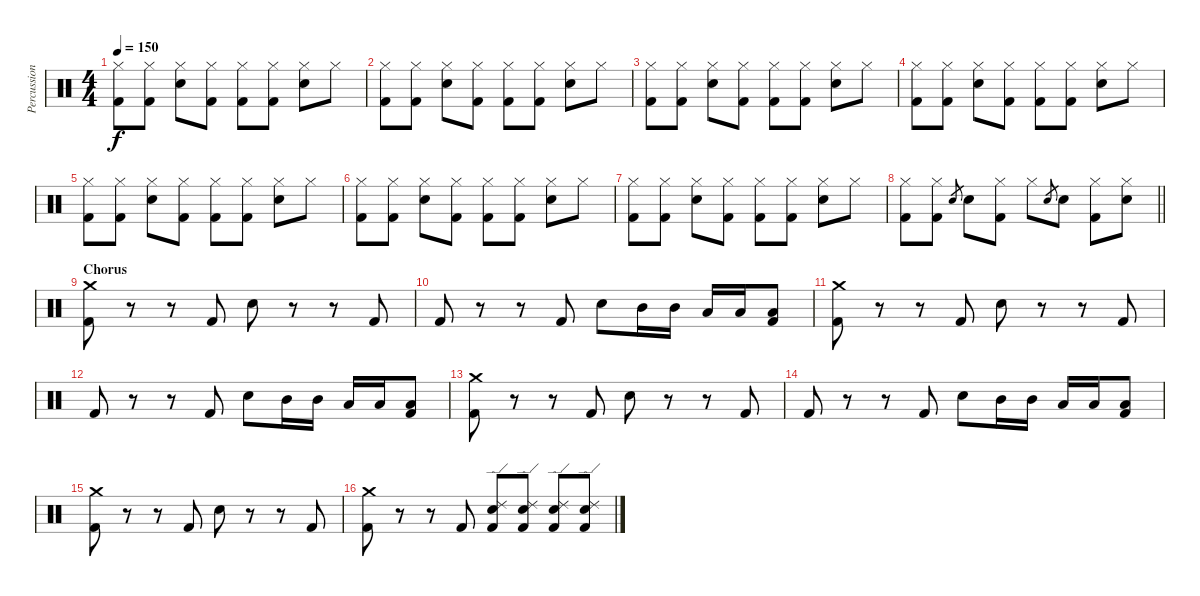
\track ("Percussion" "Percussion") {instrument percussion}
\staff {score}
\articulation defaults
\ts (4 4)
\tempo 150
\clef neutral
\ks c
("Hi-Hat (closed)" "Kick (hit) 2").8{dy f} ("Hi-Hat (closed)" "Kick (hit) 2").8 ("Hi-Hat (closed)" "Snare (hit) 2").8 ("Hi-Hat (closed)" "Kick (hit) 2").8 ("Hi-Hat (closed)" "Kick (hit) 2").8 ("Hi-Hat (closed)" "Kick (hit) 2").8 ("Hi-Hat (closed)" "Snare (hit) 2").8 "Hi-Hat (closed)".8 |
("Hi-Hat (closed)" "Kick (hit) 2").8 ("Hi-Hat (closed)" "Kick (hit) 2").8 ("Hi-Hat (closed)" "Snare (hit) 2").8 ("Hi-Hat (closed)" "Kick (hit) 2").8 ("Hi-Hat (closed)" "Kick (hit) 2").8 ("Hi-Hat (closed)" "Kick (hit) 2").8 ("Hi-Hat (closed)" "Snare (hit) 2").8 "Hi-Hat (closed)".8 |
("Hi-Hat (closed)" "Kick (hit) 2").8 ("Hi-Hat (closed)" "Kick (hit) 2").8 ("Hi-Hat (closed)" "Snare (hit) 2").8 ("Hi-Hat (closed)" "Kick (hit) 2").8 ("Hi-Hat (closed)" "Kick (hit) 2").8 ("Hi-Hat (closed)" "Kick (hit) 2").8 ("Hi-Hat (closed)" "Snare (hit) 2").8 "Hi-Hat (closed)".8 |
("Hi-Hat (closed)" "Kick (hit) 2").8 ("Hi-Hat (closed)" "Kick (hit) 2").8 ("Hi-Hat (closed)" "Snare (hit) 2").8 ("Hi-Hat (closed)" "Kick (hit) 2").8 ("Hi-Hat (closed)" "Kick (hit) 2").8 ("Hi-Hat (closed)" "Kick (hit) 2").8 ("Hi-Hat (closed)" "Snare (hit) 2").8 "Hi-Hat (closed)".8 |
("Hi-Hat (closed)" "Kick (hit) 2").8 ("Hi-Hat (closed)" "Kick (hit) 2").8 ("Hi-Hat (closed)" "Snare (hit) 2").8 ("Hi-Hat (closed)" "Kick (hit) 2").8 ("Hi-Hat (closed)" "Kick (hit) 2").8 ("Hi-Hat (closed)" "Kick (hit) 2").8 ("Hi-Hat (closed)" "Snare (hit) 2").8 "Hi-Hat (closed)".8 |
("Hi-Hat (closed)" "Kick (hit) 2").8 ("Hi-Hat (closed)" "Kick (hit) 2").8 ("Hi-Hat (closed)" "Snare (hit) 2").8 ("Hi-Hat (closed)" "Kick (hit) 2").8 ("Hi-Hat (closed)" "Kick (hit) 2").8 ("Hi-Hat (closed)" "Kick (hit) 2").8 ("Hi-Hat (closed)" "Snare (hit) 2").8 "Hi-Hat (closed)".8 |
("Hi-Hat (closed)" "Kick (hit) 2").8 ("Hi-Hat (closed)" "Kick (hit) 2").8 ("Hi-Hat (closed)" "Snare (hit) 2").8 ("Hi-Hat (closed)" "Kick (hit) 2").8 ("Hi-Hat (closed)" "Kick (hit) 2").8 ("Hi-Hat (closed)" "Kick (hit) 2").8 ("Hi-Hat (closed)" "Snare (hit) 2").8 "Hi-Hat (closed)".8 |
\barLineRight lightlight
("Hi-Hat (closed)" "Kick (hit) 2").8 ("Hi-Hat (closed)" "Kick (hit) 2").8 "Snare (hit) 2".8{gr} "Snare (hit) 2".8 ("Hi-Hat (closed)" "Kick (hit) 2").8 "Hi-Hat (closed)".8 "Snare (hit) 2".8{gr} "Snare (hit) 2".8 ("Hi-Hat (closed)" "Kick (hit) 2").8 ("Hi-Hat (closed)" "Snare (hit) 2").8 |
\section ("" "Chorus")
("Crash medium (hit)" "Kick (hit) 2").8 r.8 r.8 "Kick (hit) 2".8 "Snare (hit) 2".8 r.8 r.8 "Kick (hit) 2".8 |
"Kick (hit) 2".8 r.8 r.8 "Kick (hit) 2".8 "Snare (hit) 2".8 "Mid Tom (hit)".16 "Mid Tom (hit)".16 "Low Tom (hit)".16 "Low Tom (hit)".16 ("Low Floor Tom (hit)" "Kick (hit) 2").8 |
("Crash medium (hit)" "Kick (hit) 2").8 r.8 r.8 "Kick (hit) 2".8 "Snare (hit) 2".8 r.8 r.8 "Kick (hit) 2".8 |
"Kick (hit) 2".8 r.8 r.8 "Kick (hit) 2".8 "Snare (hit) 2".8 "Mid Tom (hit)".16 "Mid Tom (hit)".16 "Low Tom (hit)".16 "Low Tom (hit)".16 ("Low Floor Tom (hit)" "Kick (hit) 2").8 |
("Crash medium (hit)" "Kick (hit) 2").8 r.8 r.8 "Kick (hit) 2".8 "Snare (hit) 2".8 r.8 r.8 "Kick (hit) 2".8 |
"Kick (hit) 2".8 r.8 r.8 "Kick (hit) 2".8 "Snare (hit) 2".8 "Mid Tom (hit)".16 "Mid Tom (hit)".16 "Low Tom (hit)".16 "Low Tom (hit)".16 ("Low Floor Tom (hit)" "Kick (hit) 2").8 |
("Crash medium (hit)" "Kick (hit) 2").8 r.8 r.8 "Kick (hit) 2".8 "Snare (hit) 2".8 r.8 r.8 "Kick (hit) 2".8 |
("Crash medium (hit)" "Kick (hit) 2").8 r.8 r.8 "Kick (hit) 2".8 ("Ride (edge) 2" "Snare (hit) 2" "Kick (hit) 2").8 ("Ride (edge) 2" "Snare (hit) 2" "Kick (hit) 2").8 ("Ride (edge) 2" "Snare (hit) 2" "Kick (hit) 2").8 ("Ride (edge) 2" "Snare (hit) 2" "Kick (hit) 2").8
